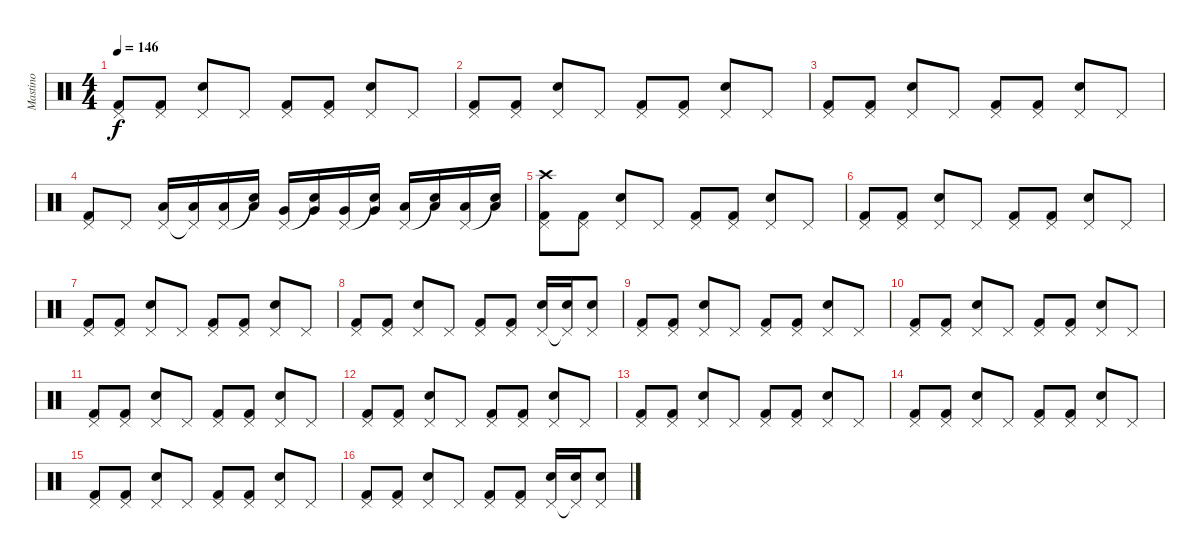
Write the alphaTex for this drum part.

\track ("Mastino" "Mastino") {instrument percussion}
\staff {score}
\articulation defaults
\ts (4 4)
\tempo 146
\clef neutral
\ks c
("Pedal Hi-Hat (hit)" "Kick (hit) 2").8{dy f} ("Pedal Hi-Hat (hit)" "Kick (hit) 2").8 ("Pedal Hi-Hat (hit)" "Electric Snare (hit)").8 "Pedal Hi-Hat (hit)".8 ("Pedal Hi-Hat (hit)" "Kick (hit) 2").8 ("Pedal Hi-Hat (hit)" "Kick (hit) 2").8 ("Pedal Hi-Hat (hit)" "Electric Snare (hit)").8 "Pedal Hi-Hat (hit)".8 |
("Pedal Hi-Hat (hit)" "Kick (hit) 2").8 ("Pedal Hi-Hat (hit)" "Kick (hit) 2").8 ("Pedal Hi-Hat (hit)" "Electric Snare (hit)").8 "Pedal Hi-Hat (hit)".8 ("Pedal Hi-Hat (hit)" "Kick (hit) 2").8 ("Pedal Hi-Hat (hit)" "Kick (hit) 2").8 ("Pedal Hi-Hat (hit)" "Electric Snare (hit)").8 "Pedal Hi-Hat (hit)".8 |
("Pedal Hi-Hat (hit)" "Kick (hit) 2").8 ("Pedal Hi-Hat (hit)" "Kick (hit) 2").8 ("Pedal Hi-Hat (hit)" "Electric Snare (hit)").8 "Pedal Hi-Hat (hit)".8 ("Pedal Hi-Hat (hit)" "Kick (hit) 2").8 ("Pedal Hi-Hat (hit)" "Kick (hit) 2").8 ("Pedal Hi-Hat (hit)" "Electric Snare (hit)").8 "Pedal Hi-Hat (hit)".8 |
("Pedal Hi-Hat (hit)" "Kick (hit) 2").8 "Pedal Hi-Hat (hit)".8 ("Pedal Hi-Hat (hit)" "Low Tom (hit)").16 ("Pedal Hi-Hat (hit)"{t} "Low Tom (hit)").16 ("Pedal Hi-Hat (hit)" "Low Tom (hit)").16 ("Snare (hit)"{t} "Low Tom (hit)").16 ("Pedal Hi-Hat (hit)" "Very Low Tom (hit)").16 ("Snare (hit)"{t} "Very Low Tom (hit)").16 ("Pedal Hi-Hat (hit)" "Very Low Tom (hit)").16 ("Snare (hit)"{t} "Very Low Tom (hit)").16 ("Pedal Hi-Hat (hit)" "Low Floor Tom (hit)").16 ("Snare (hit)"{t} "Low Floor Tom (hit)").16 ("Pedal Hi-Hat (hit)" "Low Floor Tom (hit)").16 ("Snare (hit)"{t} "Low Floor Tom (hit)").16 |
("Crash high (hit)" "Pedal Hi-Hat (hit)" "Kick (hit) 2").8 ("Pedal Hi-Hat (hit)" "Kick (hit) 2").8 ("Pedal Hi-Hat (hit)" "Electric Snare (hit)").8 "Pedal Hi-Hat (hit)".8 ("Pedal Hi-Hat (hit)" "Kick (hit) 2").8 ("Pedal Hi-Hat (hit)" "Kick (hit) 2").8 ("Pedal Hi-Hat (hit)" "Electric Snare (hit)").8 "Pedal Hi-Hat (hit)".8 |
("Pedal Hi-Hat (hit)" "Kick (hit) 2").8 ("Pedal Hi-Hat (hit)" "Kick (hit) 2").8 ("Pedal Hi-Hat (hit)" "Electric Snare (hit)").8 "Pedal Hi-Hat (hit)".8 ("Pedal Hi-Hat (hit)" "Kick (hit) 2").8 ("Pedal Hi-Hat (hit)" "Kick (hit) 2").8 ("Pedal Hi-Hat (hit)" "Electric Snare (hit)").8 "Pedal Hi-Hat (hit)".8 |
("Pedal Hi-Hat (hit)" "Kick (hit) 2").8 ("Pedal Hi-Hat (hit)" "Kick (hit) 2").8 ("Pedal Hi-Hat (hit)" "Electric Snare (hit)").8 "Pedal Hi-Hat (hit)".8 ("Pedal Hi-Hat (hit)" "Kick (hit) 2").8 ("Pedal Hi-Hat (hit)" "Kick (hit) 2").8 ("Pedal Hi-Hat (hit)" "Electric Snare (hit)").8 "Pedal Hi-Hat (hit)".8 |
("Pedal Hi-Hat (hit)" "Kick (hit) 2").8 ("Pedal Hi-Hat (hit)" "Kick (hit) 2").8 ("Pedal Hi-Hat (hit)" "Electric Snare (hit)").8 "Pedal Hi-Hat (hit)".8 ("Pedal Hi-Hat (hit)" "Kick (hit) 2").8 ("Pedal Hi-Hat (hit)" "Kick (hit) 2").8 ("Pedal Hi-Hat (hit)" "Electric Snare (hit)").16 ("Pedal Hi-Hat (hit)"{t} "Electric Snare (hit)").16 ("Pedal Hi-Hat (hit)" "Electric Snare (hit)").8 |
("Pedal Hi-Hat (hit)" "Kick (hit) 2").8 ("Pedal Hi-Hat (hit)" "Kick (hit) 2").8 ("Pedal Hi-Hat (hit)" "Electric Snare (hit)").8 "Pedal Hi-Hat (hit)".8 ("Pedal Hi-Hat (hit)" "Kick (hit) 2").8 ("Pedal Hi-Hat (hit)" "Kick (hit) 2").8 ("Pedal Hi-Hat (hit)" "Electric Snare (hit)").8 "Pedal Hi-Hat (hit)".8 |
("Pedal Hi-Hat (hit)" "Kick (hit) 2").8 ("Pedal Hi-Hat (hit)" "Kick (hit) 2").8 ("Pedal Hi-Hat (hit)" "Electric Snare (hit)").8 "Pedal Hi-Hat (hit)".8 ("Pedal Hi-Hat (hit)" "Kick (hit) 2").8 ("Pedal Hi-Hat (hit)" "Kick (hit) 2").8 ("Pedal Hi-Hat (hit)" "Electric Snare (hit)").8 "Pedal Hi-Hat (hit)".8 |
("Pedal Hi-Hat (hit)" "Kick (hit) 2").8 ("Pedal Hi-Hat (hit)" "Kick (hit) 2").8 ("Pedal Hi-Hat (hit)" "Electric Snare (hit)").8 "Pedal Hi-Hat (hit)".8 ("Pedal Hi-Hat (hit)" "Kick (hit) 2").8 ("Pedal Hi-Hat (hit)" "Kick (hit) 2").8 ("Pedal Hi-Hat (hit)" "Electric Snare (hit)").8 "Pedal Hi-Hat (hit)".8 |
("Pedal Hi-Hat (hit)" "Kick (hit) 2").8 ("Pedal Hi-Hat (hit)" "Kick (hit) 2").8 ("Pedal Hi-Hat (hit)" "Electric Snare (hit)").8 "Pedal Hi-Hat (hit)".8 ("Pedal Hi-Hat (hit)" "Kick (hit) 2").8 ("Pedal Hi-Hat (hit)" "Kick (hit) 2").8 ("Pedal Hi-Hat (hit)" "Electric Snare (hit)").8 "Pedal Hi-Hat (hit)".8 |
("Pedal Hi-Hat (hit)" "Kick (hit) 2").8 ("Pedal Hi-Hat (hit)" "Kick (hit) 2").8 ("Pedal Hi-Hat (hit)" "Electric Snare (hit)").8 "Pedal Hi-Hat (hit)".8 ("Pedal Hi-Hat (hit)" "Kick (hit) 2").8 ("Pedal Hi-Hat (hit)" "Kick (hit) 2").8 ("Pedal Hi-Hat (hit)" "Electric Snare (hit)").8 "Pedal Hi-Hat (hit)".8 |
("Pedal Hi-Hat (hit)" "Kick (hit) 2").8 ("Pedal Hi-Hat (hit)" "Kick (hit) 2").8 ("Pedal Hi-Hat (hit)" "Electric Snare (hit)").8 "Pedal Hi-Hat (hit)".8 ("Pedal Hi-Hat (hit)" "Kick (hit) 2").8 ("Pedal Hi-Hat (hit)" "Kick (hit) 2").8 ("Pedal Hi-Hat (hit)" "Electric Snare (hit)").8 "Pedal Hi-Hat (hit)".8 |
("Pedal Hi-Hat (hit)" "Kick (hit) 2").8 ("Pedal Hi-Hat (hit)" "Kick (hit) 2").8 ("Pedal Hi-Hat (hit)" "Electric Snare (hit)").8 "Pedal Hi-Hat (hit)".8 ("Pedal Hi-Hat (hit)" "Kick (hit) 2").8 ("Pedal Hi-Hat (hit)" "Kick (hit) 2").8 ("Pedal Hi-Hat (hit)" "Electric Snare (hit)").8 "Pedal Hi-Hat (hit)".8 |
("Pedal Hi-Hat (hit)" "Kick (hit) 2").8 ("Pedal Hi-Hat (hit)" "Kick (hit) 2").8 ("Pedal Hi-Hat (hit)" "Electric Snare (hit)").8 "Pedal Hi-Hat (hit)".8 ("Pedal Hi-Hat (hit)" "Kick (hit) 2").8 ("Pedal Hi-Hat (hit)" "Kick (hit) 2").8 ("Pedal Hi-Hat (hit)" "Electric Snare (hit)").16 ("Pedal Hi-Hat (hit)"{t} "Electric Snare (hit)").16 ("Pedal Hi-Hat (hit)" "Electric Snare (hit)").8
